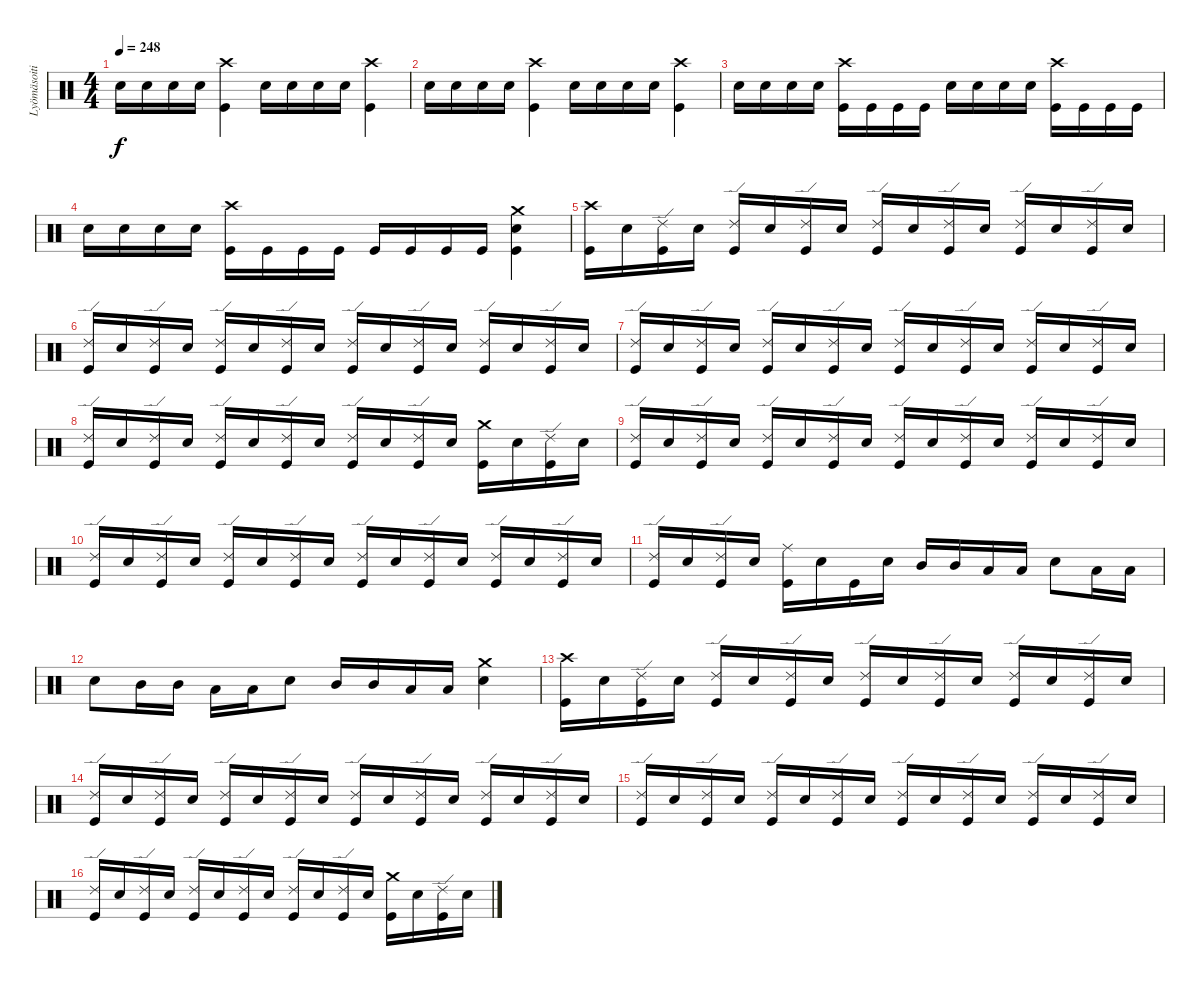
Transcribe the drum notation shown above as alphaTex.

\track ("Lyömäsoitin" "Lyömäsoiti") {instrument percussion}
\staff {score}
\articulation defaults
\ts (4 4)
\tempo 248
\clef neutral
\ks c "Snare (hit) 2".16{dy f} "Snare (hit) 2".16 "Snare (hit) 2".16 "Snare (hit) 2".16
("Crash high (hit)" "Kick (hit)").4 "Snare (hit) 2".16 "Snare (hit) 2".16 "Snare (hit) 2".16 "Snare (hit) 2".16 ("Crash high (hit)" "Kick (hit)").4 |
"Snare (hit) 2".16 "Snare (hit) 2".16 "Snare (hit) 2".16 "Snare (hit) 2".16 ("Crash high (hit)" "Kick (hit)").4 "Snare (hit) 2".16 "Snare (hit) 2".16 "Snare (hit) 2".16 "Snare (hit) 2".16 ("Crash high (hit)" "Kick (hit)").4 |
"Snare (hit) 2".16 "Snare (hit) 2".16 "Snare (hit) 2".16 "Snare (hit) 2".16 ("Crash high (hit)" "Kick (hit)").16 "Kick (hit)".16 "Kick (hit)".16 "Kick (hit)".16 "Snare (hit) 2".16 "Snare (hit) 2".16 "Snare (hit) 2".16 "Snare (hit) 2".16 ("Crash high (hit)" "Kick (hit)").16 "Kick (hit)".16 "Kick (hit)".16 "Kick (hit)".16 |
"Snare (hit) 2".16 "Snare (hit) 2".16 "Snare (hit) 2".16 "Snare (hit) 2".16 ("Crash high (hit)" "Kick (hit)").16 "Kick (hit)".16 "Kick (hit)".16 "Kick (hit)".16 "Kick (hit)".16 "Kick (hit)".16 "Kick (hit)".16 "Kick (hit)".16 ("Crash medium (hit)" "Snare (hit) 2" "Kick (hit)").4 |
("Crash high (hit)" "Kick (hit)").16 "Snare (hit) 2".16 ("Ride (edge) 2" "Kick (hit)").16 "Snare (hit) 2".16 ("Ride (edge) 2" "Kick (hit)").16 "Snare (hit) 2".16 ("Ride (edge) 2" "Kick (hit)").16 "Snare (hit) 2".16 ("Ride (edge) 2" "Kick (hit)").16 "Snare (hit) 2".16 ("Ride (edge) 2" "Kick (hit)").16 "Snare (hit) 2".16 ("Ride (edge) 2" "Kick (hit)").16 "Snare (hit) 2".16 ("Ride (edge) 2" "Kick (hit)").16 "Snare (hit) 2".16 |
("Ride (edge) 2" "Kick (hit)").16 "Snare (hit) 2".16 ("Ride (edge) 2" "Kick (hit)").16 "Snare (hit) 2".16 ("Ride (edge) 2" "Kick (hit)").16 "Snare (hit) 2".16 ("Ride (edge) 2" "Kick (hit)").16 "Snare (hit) 2".16 ("Ride (edge) 2" "Kick (hit)").16 "Snare (hit) 2".16 ("Ride (edge) 2" "Kick (hit)").16 "Snare (hit) 2".16 ("Ride (edge) 2" "Kick (hit)").16 "Snare (hit) 2".16 ("Ride (edge) 2" "Kick (hit)").16 "Snare (hit) 2".16 |
("Ride (edge) 2" "Kick (hit)").16 "Snare (hit) 2".16 ("Ride (edge) 2" "Kick (hit)").16 "Snare (hit) 2".16 ("Ride (edge) 2" "Kick (hit)").16 "Snare (hit) 2".16 ("Ride (edge) 2" "Kick (hit)").16 "Snare (hit) 2".16 ("Ride (edge) 2" "Kick (hit)").16 "Snare (hit) 2".16 ("Ride (edge) 2" "Kick (hit)").16 "Snare (hit) 2".16 ("Ride (edge) 2" "Kick (hit)").16 "Snare (hit) 2".16 ("Ride (edge) 2" "Kick (hit)").16 "Snare (hit) 2".16 |
("Ride (edge) 2" "Kick (hit)").16 "Snare (hit) 2".16 ("Ride (edge) 2" "Kick (hit)").16 "Snare (hit) 2".16 ("Ride (edge) 2" "Kick (hit)").16 "Snare (hit) 2".16 ("Ride (edge) 2" "Kick (hit)").16 "Snare (hit) 2".16 ("Ride (edge) 2" "Kick (hit)").16 "Snare (hit) 2".16 ("Ride (edge) 2" "Kick (hit)").16 "Snare (hit) 2".16 ("Crash medium (hit)" "Kick (hit)").16 "Snare (hit) 2".16 ("Ride (edge) 2" "Kick (hit)").16 "Snare (hit) 2".16 |
("Ride (edge) 2" "Kick (hit)").16 "Snare (hit) 2".16 ("Ride (edge) 2" "Kick (hit)").16 "Snare (hit) 2".16 ("Ride (edge) 2" "Kick (hit)").16 "Snare (hit) 2".16 ("Ride (edge) 2" "Kick (hit)").16 "Snare (hit) 2".16 ("Ride (edge) 2" "Kick (hit)").16 "Snare (hit) 2".16 ("Ride (edge) 2" "Kick (hit)").16 "Snare (hit) 2".16 ("Ride (edge) 2" "Kick (hit)").16 "Snare (hit) 2".16 ("Ride (edge) 2" "Kick (hit)").16 "Snare (hit) 2".16 |
("Ride (edge) 2" "Kick (hit)").16 "Snare (hit) 2".16 ("Ride (edge) 2" "Kick (hit)").16 "Snare (hit) 2".16 ("Ride (edge) 2" "Kick (hit)").16 "Snare (hit) 2".16 ("Ride (edge) 2" "Kick (hit)").16 "Snare (hit) 2".16 ("Ride (edge) 2" "Kick (hit)").16 "Snare (hit) 2".16 ("Ride (edge) 2" "Kick (hit)").16 "Snare (hit) 2".16 ("Ride (edge) 2" "Kick (hit)").16 "Snare (hit) 2".16 ("Ride (edge) 2" "Kick (hit)").16 "Snare (hit) 2".16 |
("Ride (edge) 2" "Kick (hit)").16 "Snare (hit) 2".16 ("Ride (edge) 2" "Kick (hit)").16 "Snare (hit) 2".16 ("Ride (middle)" "Kick (hit)").16 "Snare (hit) 2".16 "Kick (hit)".16 "Snare (hit) 2".16 "Mid Tom (hit)".16 "Mid Tom (hit)".16 "Low Tom (hit)".16 "Low Tom (hit)".16 "Snare (hit) 2".8 "Low Tom (hit)".16 "Low Tom (hit)".16 |
"Snare (hit) 2".8 "Mid Tom (hit)".16 "Mid Tom (hit)".16 "Low Tom (hit)".16 "Low Tom (hit)".16 "Snare (hit) 2".8 "Mid Tom (hit)".16 "Mid Tom (hit)".16 "Low Tom (hit)".16 "Low Tom (hit)".16 ("Crash medium (hit)" "Snare (hit) 2").4 |
("Crash high (hit)" "Kick (hit)").16 "Snare (hit) 2".16 ("Ride (edge) 2" "Kick (hit)").16 "Snare (hit) 2".16 ("Ride (edge) 2" "Kick (hit)").16 "Snare (hit) 2".16 ("Ride (edge) 2" "Kick (hit)").16 "Snare (hit) 2".16 ("Ride (edge) 2" "Kick (hit)").16 "Snare (hit) 2".16 ("Ride (edge) 2" "Kick (hit)").16 "Snare (hit) 2".16 ("Ride (edge) 2" "Kick (hit)").16 "Snare (hit) 2".16 ("Ride (edge) 2" "Kick (hit)").16 "Snare (hit) 2".16 |
("Ride (edge) 2" "Kick (hit)").16 "Snare (hit) 2".16 ("Ride (edge) 2" "Kick (hit)").16 "Snare (hit) 2".16 ("Ride (edge) 2" "Kick (hit)").16 "Snare (hit) 2".16 ("Ride (edge) 2" "Kick (hit)").16 "Snare (hit) 2".16 ("Ride (edge) 2" "Kick (hit)").16 "Snare (hit) 2".16 ("Ride (edge) 2" "Kick (hit)").16 "Snare (hit) 2".16 ("Ride (edge) 2" "Kick (hit)").16 "Snare (hit) 2".16 ("Ride (edge) 2" "Kick (hit)").16 "Snare (hit) 2".16 |
("Ride (edge) 2" "Kick (hit)").16 "Snare (hit) 2".16 ("Ride (edge) 2" "Kick (hit)").16 "Snare (hit) 2".16 ("Ride (edge) 2" "Kick (hit)").16 "Snare (hit) 2".16 ("Ride (edge) 2" "Kick (hit)").16 "Snare (hit) 2".16 ("Ride (edge) 2" "Kick (hit)").16 "Snare (hit) 2".16 ("Ride (edge) 2" "Kick (hit)").16 "Snare (hit) 2".16 ("Ride (edge) 2" "Kick (hit)").16 "Snare (hit) 2".16 ("Ride (edge) 2" "Kick (hit)").16 "Snare (hit) 2".16 |
("Ride (edge) 2" "Kick (hit)").16 "Snare (hit) 2".16 ("Ride (edge) 2" "Kick (hit)").16 "Snare (hit) 2".16 ("Ride (edge) 2" "Kick (hit)").16 "Snare (hit) 2".16 ("Ride (edge) 2" "Kick (hit)").16 "Snare (hit) 2".16 ("Ride (edge) 2" "Kick (hit)").16 "Snare (hit) 2".16 ("Ride (edge) 2" "Kick (hit)").16 "Snare (hit) 2".16 ("Crash medium (hit)" "Kick (hit)").16 "Snare (hit) 2".16 ("Ride (edge) 2" "Kick (hit)").16 "Snare (hit) 2".16
